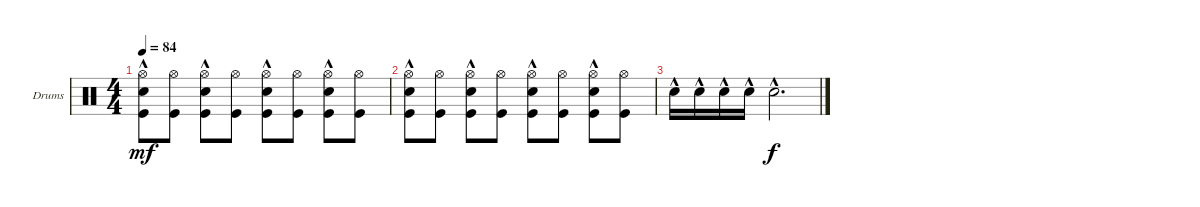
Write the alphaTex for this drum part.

\defaultSystemsLayout 4
\bracketExtendMode groupsimilarinstruments
\firstSystemTrackNameOrientation horizontal
\otherSystemsTrackNameOrientation horizontal
\track ("Drumkit" "Drums") {instrument percussion}
\staff {score}
\articulation defaults
\ts (4 4)
\tempo 84
\clef neutral
\ks c
("Kick (hit)" "Hi-Hat (open)" "Snare (hit) 2"{hac}).8{dy mf} ("Kick (hit)" "Hi-Hat (open)").8 ("Snare (hit) 2"{hac} "Kick (hit)" "Hi-Hat (open)").8 ("Kick (hit)" "Hi-Hat (open)").8 ("Kick (hit)" "Snare (hit) 2"{hac} "Hi-Hat (open)").8 ("Kick (hit)" "Hi-Hat (open)").8 ("Snare (hit) 2"{hac} "Kick (hit)" "Hi-Hat (open)").8 ("Kick (hit)" "Hi-Hat (open)").8 |
("Kick (hit)" "Hi-Hat (open)" "Snare (hit) 2"{hac}).8 ("Kick (hit)" "Hi-Hat (open)").8 ("Snare (hit) 2"{hac} "Kick (hit)" "Hi-Hat (open)").8 ("Kick (hit)" "Hi-Hat (open)").8 ("Kick (hit)" "Snare (hit) 2"{hac} "Hi-Hat (open)").8 ("Kick (hit)" "Hi-Hat (open)").8 ("Snare (hit) 2"{hac} "Kick (hit)" "Hi-Hat (open)").8 ("Kick (hit)" "Hi-Hat (open)").8 |
"Snare (hit) 2"{hac}.16 "Snare (hit) 2"{hac}.16 "Snare (hit) 2"{hac}.16 "Snare (hit) 2"{hac}.16 "Snare (hit) 2"{hac}.2{d dy f}
